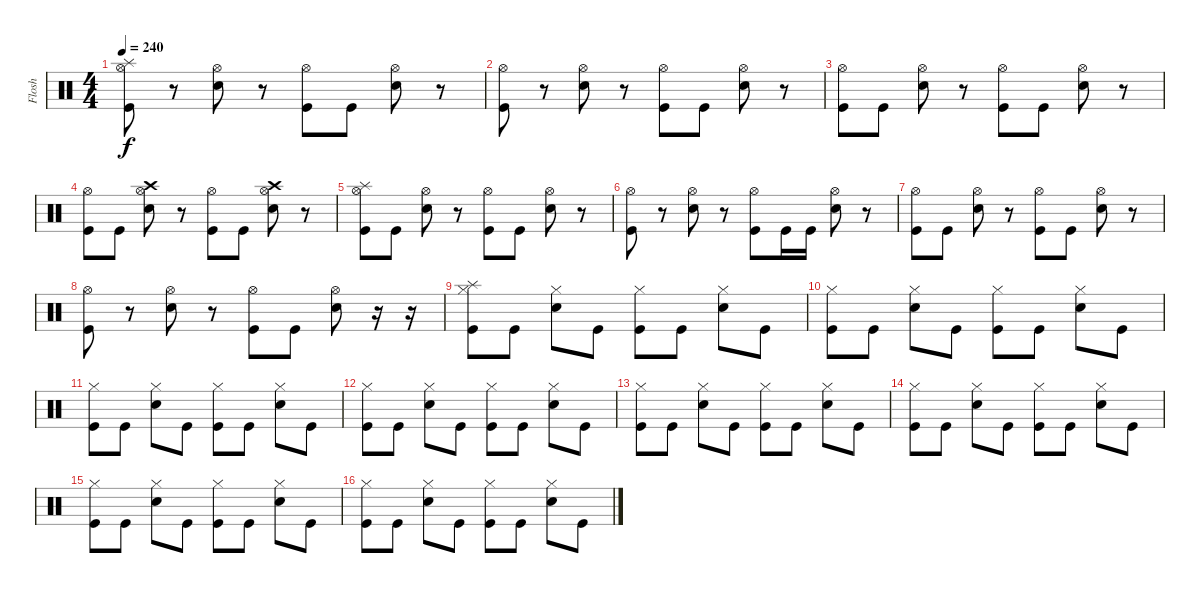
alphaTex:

\track ("Flosh" "Flosh") {instrument percussion}
\staff {score}
\articulation defaults
\ts (4 4)
\tempo 240
\clef neutral
\ks c
("Splash (hit)" "Hi-Hat (open)" "Kick (hit)").8{dy f} r.8 ("Hi-Hat (open)" "Snare (hit) 2").8 r.8 ("Hi-Hat (open)" "Kick (hit)").8 "Kick (hit)".8 ("Hi-Hat (open)" "Snare (hit) 2").8 r.8 |
("Hi-Hat (open)" "Kick (hit)").8 r.8 ("Hi-Hat (open)" "Snare (hit) 2").8 r.8 ("Hi-Hat (open)" "Kick (hit)").8 "Kick (hit)".8 ("Hi-Hat (open)" "Snare (hit) 2").8 r.8 |
("Hi-Hat (open)" "Kick (hit)").8 "Kick (hit)".8 ("Hi-Hat (open)" "Snare (hit) 2").8 r.8 ("Hi-Hat (open)" "Kick (hit)").8 "Kick (hit)".8 ("Hi-Hat (open)" "Snare (hit) 2").8 r.8 |
("Hi-Hat (open)" "Kick (hit)").8 "Kick (hit)".8 ("Crash high (hit)" "Hi-Hat (open)" "Snare (hit) 2").8 r.8 ("Hi-Hat (open)" "Kick (hit)").8 "Kick (hit)".8 ("Crash high (hit)" "Hi-Hat (open)" "Snare (hit) 2").8 r.8 |
("Splash (hit)" "Hi-Hat (open)" "Kick (hit)").8 "Kick (hit)".8 ("Hi-Hat (open)" "Snare (hit) 2").8 r.8 ("Hi-Hat (open)" "Kick (hit)").8 "Kick (hit)".8 ("Hi-Hat (open)" "Snare (hit) 2").8 r.8 |
("Hi-Hat (open)" "Kick (hit)").8 r.8 ("Hi-Hat (open)" "Snare (hit) 2").8 r.8 ("Hi-Hat (open)" "Kick (hit)").8 "Kick (hit)".16 "Kick (hit)".16 ("Hi-Hat (open)" "Snare (hit) 2").8 r.8 |
("Hi-Hat (open)" "Kick (hit)").8 "Kick (hit)".8 ("Hi-Hat (open)" "Snare (hit) 2").8 r.8 ("Hi-Hat (open)" "Kick (hit)").8 "Kick (hit)".8 ("Hi-Hat (open)" "Snare (hit) 2").8 r.8 |
("Hi-Hat (open)" "Kick (hit)").8 r.8 ("Hi-Hat (open)" "Snare (hit) 2").8 r.8 ("Hi-Hat (open)" "Kick (hit)").8 "Kick (hit)".8 ("Hi-Hat (open)" "Snare (hit) 2").8 r.16 r.16 |
("Splash (hit)" "Hi-Hat (closed)" "Kick (hit)").8 "Kick (hit)".8 ("Hi-Hat (closed)" "Snare (hit) 2").8 "Kick (hit)".8 ("Hi-Hat (closed)" "Kick (hit)").8 "Kick (hit)".8 ("Hi-Hat (closed)" "Snare (hit) 2").8 "Kick (hit)".8 |
("Hi-Hat (closed)" "Kick (hit)").8 "Kick (hit)".8 ("Hi-Hat (closed)" "Snare (hit) 2").8 "Kick (hit)".8 ("Hi-Hat (closed)" "Kick (hit)").8 "Kick (hit)".8 ("Hi-Hat (closed)" "Snare (hit) 2").8 "Kick (hit)".8 |
("Hi-Hat (closed)" "Kick (hit)").8 "Kick (hit)".8 ("Hi-Hat (closed)" "Snare (hit) 2").8 "Kick (hit)".8 ("Hi-Hat (closed)" "Kick (hit)").8 "Kick (hit)".8 ("Hi-Hat (closed)" "Snare (hit) 2").8 "Kick (hit)".8 |
("Hi-Hat (closed)" "Kick (hit)").8 "Kick (hit)".8 ("Hi-Hat (closed)" "Snare (hit) 2").8 "Kick (hit)".8 ("Hi-Hat (closed)" "Kick (hit)").8 "Kick (hit)".8 ("Hi-Hat (closed)" "Snare (hit) 2").8 "Kick (hit)".8 |
("Hi-Hat (closed)" "Kick (hit)").8 "Kick (hit)".8 ("Hi-Hat (closed)" "Snare (hit) 2").8 "Kick (hit)".8 ("Hi-Hat (closed)" "Kick (hit)").8 "Kick (hit)".8 ("Hi-Hat (closed)" "Snare (hit) 2").8 "Kick (hit)".8 |
("Hi-Hat (closed)" "Kick (hit)").8 "Kick (hit)".8 ("Hi-Hat (closed)" "Snare (hit) 2").8 "Kick (hit)".8 ("Hi-Hat (closed)" "Kick (hit)").8 "Kick (hit)".8 ("Hi-Hat (closed)" "Snare (hit) 2").8 "Kick (hit)".8 |
("Hi-Hat (closed)" "Kick (hit)").8 "Kick (hit)".8 ("Hi-Hat (closed)" "Snare (hit) 2").8 "Kick (hit)".8 ("Hi-Hat (closed)" "Kick (hit)").8 "Kick (hit)".8 ("Hi-Hat (closed)" "Snare (hit) 2").8 "Kick (hit)".8 |
("Hi-Hat (closed)" "Kick (hit)").8 "Kick (hit)".8 ("Hi-Hat (closed)" "Snare (hit) 2").8 "Kick (hit)".8 ("Hi-Hat (closed)" "Kick (hit)").8 "Kick (hit)".8 ("Hi-Hat (closed)" "Snare (hit) 2").8 "Kick (hit)".8
